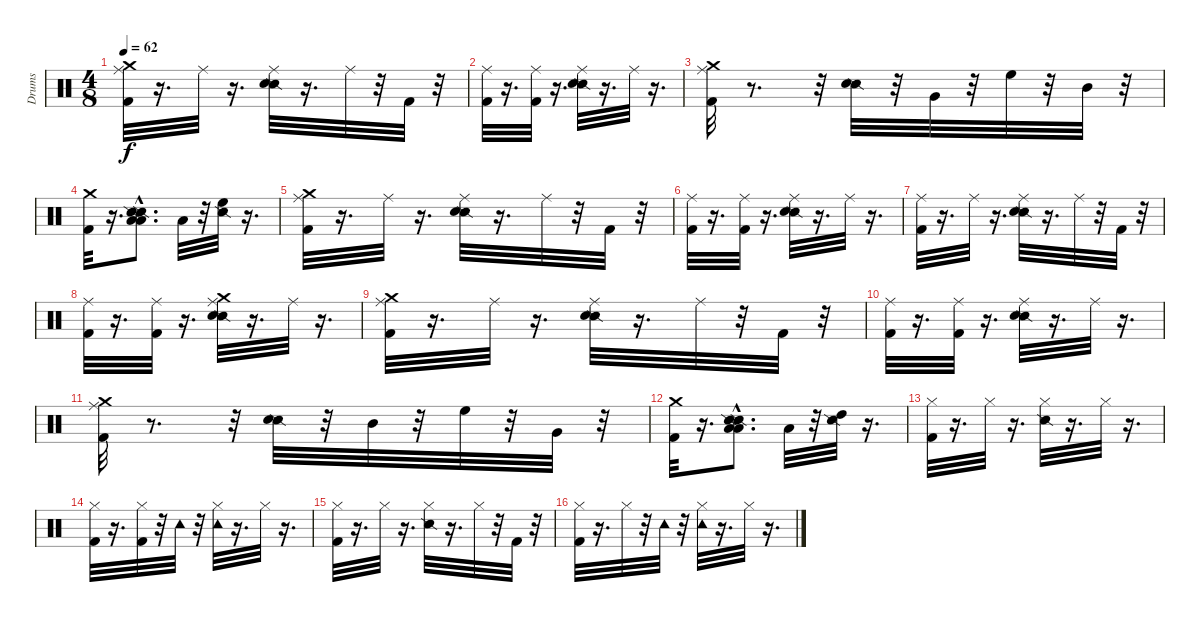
\track ("Drums" "Drums") {instrument percussion}
\staff {score}
\articulation defaults
\ts (4 8)
\tempo 62
\clef neutral
\ks c
("Kick (hit) 2" "Ride (middle)" "Crash medium (hit)").32{dy f} r.16{d} "Ride (middle)".32 r.16{d} ("Snare (side stick) 2" "Snare (hit) 2" "Ride (middle)").32 r.16{d} "Ride (middle)".32 r.32 "Kick (hit) 2".32 r.32 |
("Kick (hit) 2" "Ride (middle)").32 r.16{d} ("Kick (hit) 2" "Ride (middle)").32 r.16{d} ("Snare (side stick) 2" "Snare (hit) 2" "Ride (middle)").32 r.16{d} "Ride (middle)".32 r.16{d} |
("Kick (hit) 2" "Ride (middle)" "Crash medium (hit)").32 r.8{d} r.32 ("Snare (side stick) 2" "Snare (hit) 2").32 r.32 "Very Low Tom (hit)".32 r.32 "High Floor Tom (hit)".32 r.32 "Mid Tom (hit)".32 r.32 |
("Kick (hit) 2" "Crash medium (hit)").32 r.16{d} ("Low Tom (hit)"{hac} "Snare (side stick) 2"{hac} "Low Tom (hit)" "Snare (side stick) 2").8{d} "Low Tom (hit)".32 r.32 ("High Floor Tom (hit)" "Snare (side stick) 2").32 r.16{d} |
("Kick (hit) 2" "Ride (middle)" "Crash medium (hit)").32 r.16{d} "Ride (middle)".32 r.16{d} ("Snare (side stick) 2" "Snare (hit) 2" "Ride (middle)").32 r.16{d} "Ride (middle)".32 r.32 "Kick (hit) 2".32 r.32 |
("Kick (hit) 2" "Ride (middle)").32 r.16{d} ("Kick (hit) 2" "Ride (middle)").32 r.16{d} ("Snare (side stick) 2" "Snare (hit) 2" "Ride (middle)").32 r.16{d} "Ride (middle)".32 r.16{d} |
("Kick (hit) 2" "Ride (middle)").32 r.16{d} "Ride (middle)".32 r.16{d} ("Snare (side stick) 2" "Snare (hit) 2" "Ride (middle)").32 r.16{d} "Ride (middle)".32 r.32 "Kick (hit) 2".32 r.32 |
("Kick (hit) 2" "Ride (middle)").32 r.16{d} ("Kick (hit) 2" "Ride (middle)").32 r.16{d} ("Snare (side stick) 2" "Snare (hit) 2" "Ride (middle)" "Crash medium (hit)").32 r.16{d} "Ride (middle)".32 r.16{d} |
("Kick (hit) 2" "Ride (middle)" "Crash medium (hit)").32 r.16{d} "Ride (middle)".32 r.16{d} ("Snare (side stick) 2" "Snare (hit) 2" "Ride (middle)").32 r.16{d} "Ride (middle)".32 r.32 "Kick (hit) 2".32 r.32 |
("Kick (hit) 2" "Ride (middle)").32 r.16{d} ("Kick (hit) 2" "Ride (middle)").32 r.16{d} ("Snare (side stick) 2" "Snare (hit) 2" "Ride (middle)").32 r.16{d} "Ride (middle)".32 r.16{d} |
("Kick (hit) 2" "Ride (middle)" "Crash medium (hit)").32 r.8{d} r.32 ("Snare (side stick) 2" "Snare (hit) 2").32 r.32 "Mid Tom (hit)".32 r.32 "High Floor Tom (hit)".32 r.32 "Very Low Tom (hit)".32 r.32 |
("Kick (hit) 2" "Crash medium (hit)").32 r.16{d} ("Low Tom (hit)"{hac} "Snare (side stick) 2"{hac} "Low Tom (hit)" "Snare (side stick) 2").8{d} "Low Tom (hit)".32 r.32 ("High Tom (hit)" "Snare (side stick) 2").32 r.16{d} |
("Kick (hit) 2" "Hi-Hat (closed)").32 r.16{d} "Hi-Hat (closed)".32 r.16{d} ("Snare (side stick) 2" "Hi-Hat (closed)").32 r.16{d} "Hi-Hat (closed)".32 r.16{d} |
("Kick (hit) 2" "Hi-Hat (closed)").32 r.16{d} ("Kick (hit) 2" "Hi-Hat (closed)").32 r.32 "Tambourine (hit)".32 r.32 ("Hi-Hat (closed)" "Tambourine (hit)").32 r.16{d} "Hi-Hat (closed)".32 r.16{d} |
("Kick (hit) 2" "Hi-Hat (closed)").32 r.16{d} "Hi-Hat (closed)".32 r.16{d} ("Snare (side stick) 2" "Hi-Hat (closed)").32 r.16{d} "Hi-Hat (closed)".32 r.32 "Kick (hit) 2".32 r.32 |
("Kick (hit) 2" "Hi-Hat (closed)").32 r.16{d} "Hi-Hat (closed)".32 r.32 "Tambourine (hit)".32 r.32 ("Hi-Hat (closed)" "Tambourine (hit)").32 r.16{d} "Hi-Hat (closed)".32 r.16{d}
